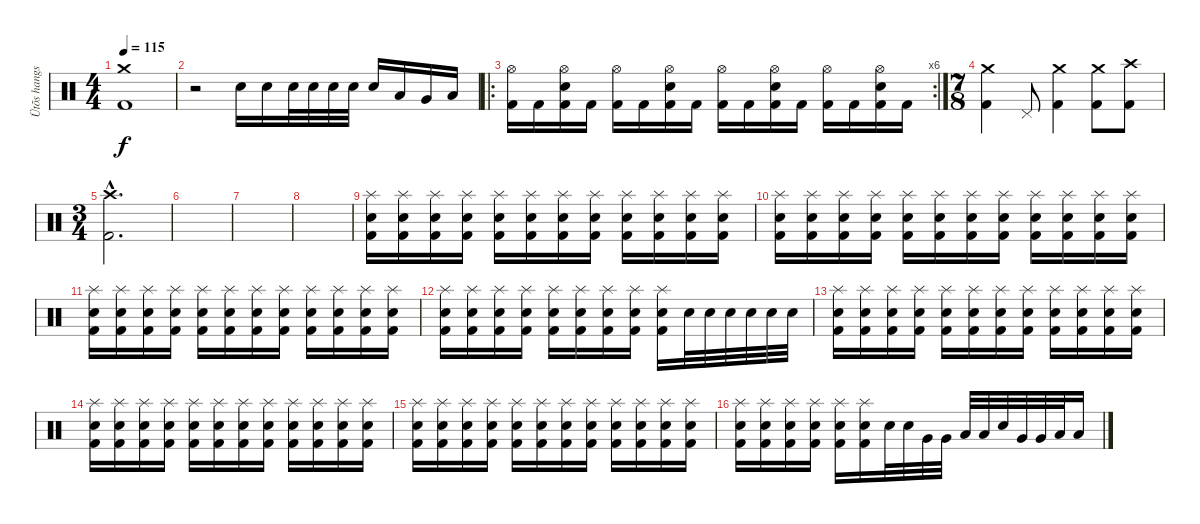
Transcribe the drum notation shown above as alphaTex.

\track ("Ütõs hangszer" "Ütõs hangs") {instrument percussion}
\staff {score}
\articulation defaults
\ts (4 4)
\tempo 115
\clef neutral
\ks c
("Crash medium (hit)" "Kick (hit) 2").1{dy f} |
r.2 "Electric Snare (hit)".16 "Electric Snare (hit)".16 "Electric Snare (hit)".32 "Electric Snare (hit)".32 "Electric Snare (hit)".32 "Electric Snare (hit)".32 "Electric Snare (hit)".16 "Low Tom (hit)".16 "Very Low Tom (hit)".16 "Low Floor Tom (hit)".16 |
\ro
\rc 6
("Hi-Hat (open)" "Kick (hit) 2").16 "Kick (hit) 2".16 ("Hi-Hat (open)" "Electric Snare (hit)" "Kick (hit) 2").16 "Kick (hit) 2".16 ("Hi-Hat (open)" "Kick (hit) 2").16 "Kick (hit) 2".16 ("Hi-Hat (open)" "Electric Snare (hit)" "Kick (hit) 2").16 "Kick (hit) 2".16 ("Hi-Hat (open)" "Kick (hit) 2").16 "Kick (hit) 2".16 ("Hi-Hat (open)" "Electric Snare (hit)" "Kick (hit) 2").16 "Kick (hit) 2".16 ("Hi-Hat (open)" "Kick (hit) 2").16 "Kick (hit) 2".16 ("Hi-Hat (open)" "Electric Snare (hit)" "Kick (hit) 2").16 "Kick (hit) 2".16 |
\ts (7 8)
("Crash medium (hit)" "Kick (hit) 2").4 "Pedal Hi-Hat (hit)".8 ("Crash medium (hit)" "Kick (hit) 2").4 ("Crash medium (hit)" "Kick (hit) 2").8 ("Crash high (hit)" "Kick (hit) 2").8 |
\ts (3 4)
("Crash high (hit)"{hac} "Kick (hit) 2"{hac}).2{d} |
|
|
|
("Splash (hit)" "Electric Snare (hit)" "Kick (hit) 2").16 ("Splash (hit)" "Electric Snare (hit)" "Kick (hit) 2").16 ("Splash (hit)" "Electric Snare (hit)" "Kick (hit) 2").16 ("Splash (hit)" "Electric Snare (hit)" "Kick (hit) 2").16 ("Splash (hit)" "Electric Snare (hit)" "Kick (hit) 2").16 ("Splash (hit)" "Electric Snare (hit)" "Kick (hit) 2").16 ("Splash (hit)" "Electric Snare (hit)" "Kick (hit) 2").16 ("Splash (hit)" "Electric Snare (hit)" "Kick (hit) 2").16 ("Splash (hit)" "Electric Snare (hit)" "Kick (hit) 2").16 ("Splash (hit)" "Electric Snare (hit)" "Kick (hit) 2").16 ("Splash (hit)" "Electric Snare (hit)" "Kick (hit) 2").16 ("Splash (hit)" "Electric Snare (hit)" "Kick (hit) 2").16 |
("Splash (hit)" "Electric Snare (hit)" "Kick (hit) 2").16 ("Splash (hit)" "Electric Snare (hit)" "Kick (hit) 2").16 ("Splash (hit)" "Electric Snare (hit)" "Kick (hit) 2").16 ("Splash (hit)" "Electric Snare (hit)" "Kick (hit) 2").16 ("Splash (hit)" "Electric Snare (hit)" "Kick (hit) 2").16 ("Splash (hit)" "Electric Snare (hit)" "Kick (hit) 2").16 ("Splash (hit)" "Electric Snare (hit)" "Kick (hit) 2").16 ("Splash (hit)" "Electric Snare (hit)" "Kick (hit) 2").16 ("Splash (hit)" "Electric Snare (hit)" "Kick (hit) 2").16 ("Splash (hit)" "Electric Snare (hit)" "Kick (hit) 2").16 ("Splash (hit)" "Electric Snare (hit)" "Kick (hit) 2").16 ("Splash (hit)" "Electric Snare (hit)" "Kick (hit) 2").16 |
("Splash (hit)" "Electric Snare (hit)" "Kick (hit) 2").16 ("Splash (hit)" "Electric Snare (hit)" "Kick (hit) 2").16 ("Splash (hit)" "Electric Snare (hit)" "Kick (hit) 2").16 ("Splash (hit)" "Electric Snare (hit)" "Kick (hit) 2").16 ("Splash (hit)" "Electric Snare (hit)" "Kick (hit) 2").16 ("Splash (hit)" "Electric Snare (hit)" "Kick (hit) 2").16 ("Splash (hit)" "Electric Snare (hit)" "Kick (hit) 2").16 ("Splash (hit)" "Electric Snare (hit)" "Kick (hit) 2").16 ("Splash (hit)" "Electric Snare (hit)" "Kick (hit) 2").16 ("Splash (hit)" "Electric Snare (hit)" "Kick (hit) 2").16 ("Splash (hit)" "Electric Snare (hit)" "Kick (hit) 2").16 ("Splash (hit)" "Electric Snare (hit)" "Kick (hit) 2").16 |
("Splash (hit)" "Electric Snare (hit)" "Kick (hit) 2").16 ("Splash (hit)" "Electric Snare (hit)" "Kick (hit) 2").16 ("Splash (hit)" "Electric Snare (hit)" "Kick (hit) 2").16 ("Splash (hit)" "Electric Snare (hit)" "Kick (hit) 2").16 ("Splash (hit)" "Electric Snare (hit)" "Kick (hit) 2").16 ("Splash (hit)" "Electric Snare (hit)" "Kick (hit) 2").16 ("Splash (hit)" "Electric Snare (hit)" "Kick (hit) 2").16 ("Splash (hit)" "Electric Snare (hit)" "Kick (hit) 2").16 ("Splash (hit)" "Electric Snare (hit)" "Kick (hit) 2").16 "Electric Snare (hit)".32 "Electric Snare (hit)".32 "Electric Snare (hit)".32 "Electric Snare (hit)".32 "Electric Snare (hit)".32 "Electric Snare (hit)".32 |
("Splash (hit)" "Electric Snare (hit)" "Kick (hit) 2").16 ("Splash (hit)" "Electric Snare (hit)" "Kick (hit) 2").16 ("Splash (hit)" "Electric Snare (hit)" "Kick (hit) 2").16 ("Splash (hit)" "Electric Snare (hit)" "Kick (hit) 2").16 ("Splash (hit)" "Electric Snare (hit)" "Kick (hit) 2").16 ("Splash (hit)" "Electric Snare (hit)" "Kick (hit) 2").16 ("Splash (hit)" "Electric Snare (hit)" "Kick (hit) 2").16 ("Splash (hit)" "Electric Snare (hit)" "Kick (hit) 2").16 ("Splash (hit)" "Electric Snare (hit)" "Kick (hit) 2").16 ("Splash (hit)" "Electric Snare (hit)" "Kick (hit) 2").16 ("Splash (hit)" "Electric Snare (hit)" "Kick (hit) 2").16 ("Splash (hit)" "Electric Snare (hit)" "Kick (hit) 2").16 |
("Splash (hit)" "Electric Snare (hit)" "Kick (hit) 2").16 ("Splash (hit)" "Electric Snare (hit)" "Kick (hit) 2").16 ("Splash (hit)" "Electric Snare (hit)" "Kick (hit) 2").16 ("Splash (hit)" "Electric Snare (hit)" "Kick (hit) 2").16 ("Splash (hit)" "Electric Snare (hit)" "Kick (hit) 2").16 ("Splash (hit)" "Electric Snare (hit)" "Kick (hit) 2").16 ("Splash (hit)" "Electric Snare (hit)" "Kick (hit) 2").16 ("Splash (hit)" "Electric Snare (hit)" "Kick (hit) 2").16 ("Splash (hit)" "Electric Snare (hit)" "Kick (hit) 2").16 ("Splash (hit)" "Electric Snare (hit)" "Kick (hit) 2").16 ("Splash (hit)" "Electric Snare (hit)" "Kick (hit) 2").16 ("Splash (hit)" "Electric Snare (hit)" "Kick (hit) 2").16 |
("Splash (hit)" "Electric Snare (hit)" "Kick (hit) 2").16 ("Splash (hit)" "Electric Snare (hit)" "Kick (hit) 2").16 ("Splash (hit)" "Electric Snare (hit)" "Kick (hit) 2").16 ("Splash (hit)" "Electric Snare (hit)" "Kick (hit) 2").16 ("Splash (hit)" "Electric Snare (hit)" "Kick (hit) 2").16 ("Splash (hit)" "Electric Snare (hit)" "Kick (hit) 2").16 ("Splash (hit)" "Electric Snare (hit)" "Kick (hit) 2").16 ("Splash (hit)" "Electric Snare (hit)" "Kick (hit) 2").16 ("Splash (hit)" "Electric Snare (hit)" "Kick (hit) 2").16 ("Splash (hit)" "Electric Snare (hit)" "Kick (hit) 2").16 ("Splash (hit)" "Electric Snare (hit)" "Kick (hit) 2").16 ("Splash (hit)" "Electric Snare (hit)" "Kick (hit) 2").16 |
("Splash (hit)" "Electric Snare (hit)" "Kick (hit) 2").16 ("Splash (hit)" "Electric Snare (hit)" "Kick (hit) 2").16 ("Splash (hit)" "Electric Snare (hit)" "Kick (hit) 2").16 ("Splash (hit)" "Electric Snare (hit)" "Kick (hit) 2").16 ("Splash (hit)" "Electric Snare (hit)" "Kick (hit) 2").16 ("Splash (hit)" "Electric Snare (hit)" "Kick (hit) 2").16 "Electric Snare (hit)".32 "Electric Snare (hit)".32 "Very Low Tom (hit)".32 "Very Low Tom (hit)".32 "Low Floor Tom (hit)".32 "Low Floor Tom (hit)".32 "Electric Snare (hit)".32 "Very Low Tom (hit)".32 "Very Low Tom (hit)".32 "Low Floor Tom (hit)".32 "Low Floor Tom (hit)".16
